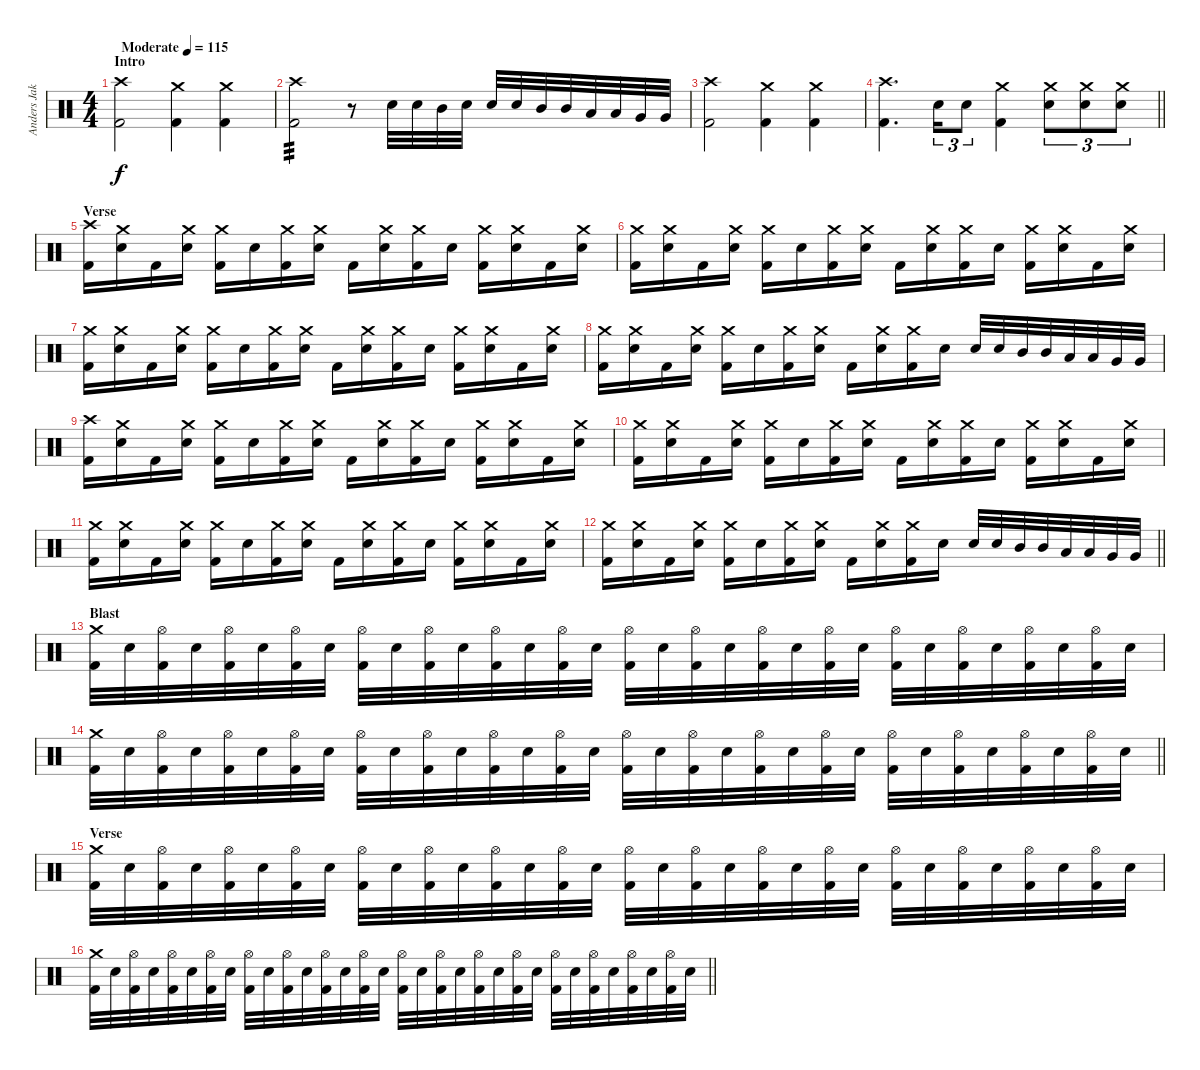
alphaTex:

\track ("Anders Jakobson" "Anders Jak") {instrument percussion}
\staff {score}
\articulation defaults
\ts (4 4)
\section ("" "Intro")
\tempo (115 "Moderate")
\clef neutral
\ks c
("Crash high (hit)" "Kick (hit) 2").2{dy f} ("Crash medium (hit)" "Kick (hit) 2").4 ("Crash medium (hit)" "Kick (hit) 2").4 |
("Crash high (hit)" "Kick (hit) 2").2{tp 3} r.8 "Electric Snare (hit)".32 "Electric Snare (hit)".32 "Mid Tom (hit)".32 "Electric Snare (hit)".32 "Electric Snare (hit)".32 "Electric Snare (hit)".32 "Mid Tom (hit)".32 "Mid Tom (hit)".32 "Low Tom (hit)".32 "Low Tom (hit)".32 "Very Low Tom (hit)".32 "Very Low Tom (hit)".32 |
("Crash high (hit)" "Kick (hit) 2").2 ("Crash medium (hit)" "Kick (hit) 2").4 ("Crash medium (hit)" "Kick (hit) 2").4 |
\barLineRight lightlight
("Crash high (hit)" "Kick (hit) 2").4{d} "Electric Snare (hit)".16{tu (3 2)} "Electric Snare (hit)".8{tu (3 2)} ("Crash medium (hit)" "Kick (hit) 2").4 ("Crash medium (hit)" "Electric Snare (hit)").8{tu (3 2)} ("Crash medium (hit)" "Electric Snare (hit)").8{tu (3 2)} ("Crash medium (hit)" "Electric Snare (hit)").8{tu (3 2)} |
\section ("" "Verse")
("Crash high (hit)" "Kick (hit) 2").16 ("Crash medium (hit)" "Electric Snare (hit)").16 "Kick (hit) 2".16 ("Crash medium (hit)" "Electric Snare (hit)").16 ("Crash medium (hit)" "Kick (hit) 2").16 "Electric Snare (hit)".16 ("Crash medium (hit)" "Kick (hit) 2").16 ("Crash medium (hit)" "Electric Snare (hit)").16 "Kick (hit) 2".16 ("Crash medium (hit)" "Electric Snare (hit)").16 ("Crash medium (hit)" "Kick (hit) 2").16 "Electric Snare (hit)".16 ("Crash medium (hit)" "Kick (hit) 2").16 ("Crash medium (hit)" "Electric Snare (hit)").16 "Kick (hit) 2".16 ("Crash medium (hit)" "Electric Snare (hit)").16 |
("Crash medium (hit)" "Kick (hit) 2").16 ("Crash medium (hit)" "Electric Snare (hit)").16 "Kick (hit) 2".16 ("Crash medium (hit)" "Electric Snare (hit)").16 ("Crash medium (hit)" "Kick (hit) 2").16 "Electric Snare (hit)".16 ("Crash medium (hit)" "Kick (hit) 2").16 ("Crash medium (hit)" "Electric Snare (hit)").16 "Kick (hit) 2".16 ("Crash medium (hit)" "Electric Snare (hit)").16 ("Crash medium (hit)" "Kick (hit) 2").16 "Electric Snare (hit)".16 ("Crash medium (hit)" "Kick (hit) 2").16 ("Crash medium (hit)" "Electric Snare (hit)").16 "Kick (hit) 2".16 ("Crash medium (hit)" "Electric Snare (hit)").16 |
("Crash medium (hit)" "Kick (hit) 2").16 ("Crash medium (hit)" "Electric Snare (hit)").16 "Kick (hit) 2".16 ("Crash medium (hit)" "Electric Snare (hit)").16 ("Crash medium (hit)" "Kick (hit) 2").16 "Electric Snare (hit)".16 ("Crash medium (hit)" "Kick (hit) 2").16 ("Crash medium (hit)" "Electric Snare (hit)").16 "Kick (hit) 2".16 ("Crash medium (hit)" "Electric Snare (hit)").16 ("Crash medium (hit)" "Kick (hit) 2").16 "Electric Snare (hit)".16 ("Crash medium (hit)" "Kick (hit) 2").16 ("Crash medium (hit)" "Electric Snare (hit)").16 "Kick (hit) 2".16 ("Crash medium (hit)" "Electric Snare (hit)").16 |
("Crash medium (hit)" "Kick (hit) 2").16 ("Crash medium (hit)" "Electric Snare (hit)").16 "Kick (hit) 2".16 ("Crash medium (hit)" "Electric Snare (hit)").16 ("Crash medium (hit)" "Kick (hit) 2").16 "Electric Snare (hit)".16 ("Crash medium (hit)" "Kick (hit) 2").16 ("Crash medium (hit)" "Electric Snare (hit)").16 "Kick (hit) 2".16 ("Crash medium (hit)" "Electric Snare (hit)").16 ("Crash medium (hit)" "Kick (hit) 2").16 "Electric Snare (hit)".16 "Electric Snare (hit)".32 "Electric Snare (hit)".32 "Mid Tom (hit)".32 "Mid Tom (hit)".32 "Low Tom (hit)".32 "Low Tom (hit)".32 "Very Low Tom (hit)".32 "Very Low Tom (hit)".32 |
("Crash high (hit)" "Kick (hit) 2").16 ("Crash medium (hit)" "Electric Snare (hit)").16 "Kick (hit) 2".16 ("Crash medium (hit)" "Electric Snare (hit)").16 ("Crash medium (hit)" "Kick (hit) 2").16 "Electric Snare (hit)".16 ("Crash medium (hit)" "Kick (hit) 2").16 ("Crash medium (hit)" "Electric Snare (hit)").16 "Kick (hit) 2".16 ("Crash medium (hit)" "Electric Snare (hit)").16 ("Crash medium (hit)" "Kick (hit) 2").16 "Electric Snare (hit)".16 ("Crash medium (hit)" "Kick (hit) 2").16 ("Crash medium (hit)" "Electric Snare (hit)").16 "Kick (hit) 2".16 ("Crash medium (hit)" "Electric Snare (hit)").16 |
("Crash medium (hit)" "Kick (hit) 2").16 ("Crash medium (hit)" "Electric Snare (hit)").16 "Kick (hit) 2".16 ("Crash medium (hit)" "Electric Snare (hit)").16 ("Crash medium (hit)" "Kick (hit) 2").16 "Electric Snare (hit)".16 ("Crash medium (hit)" "Kick (hit) 2").16 ("Crash medium (hit)" "Electric Snare (hit)").16 "Kick (hit) 2".16 ("Crash medium (hit)" "Electric Snare (hit)").16 ("Crash medium (hit)" "Kick (hit) 2").16 "Electric Snare (hit)".16 ("Crash medium (hit)" "Kick (hit) 2").16 ("Crash medium (hit)" "Electric Snare (hit)").16 "Kick (hit) 2".16 ("Crash medium (hit)" "Electric Snare (hit)").16 |
("Crash medium (hit)" "Kick (hit) 2").16 ("Crash medium (hit)" "Electric Snare (hit)").16 "Kick (hit) 2".16 ("Crash medium (hit)" "Electric Snare (hit)").16 ("Crash medium (hit)" "Kick (hit) 2").16 "Electric Snare (hit)".16 ("Crash medium (hit)" "Kick (hit) 2").16 ("Crash medium (hit)" "Electric Snare (hit)").16 "Kick (hit) 2".16 ("Crash medium (hit)" "Electric Snare (hit)").16 ("Crash medium (hit)" "Kick (hit) 2").16 "Electric Snare (hit)".16 ("Crash medium (hit)" "Kick (hit) 2").16 ("Crash medium (hit)" "Electric Snare (hit)").16 "Kick (hit) 2".16 ("Crash medium (hit)" "Electric Snare (hit)").16 |
\barLineRight lightlight
("Crash medium (hit)" "Kick (hit) 2").16 ("Crash medium (hit)" "Electric Snare (hit)").16 "Kick (hit) 2".16 ("Crash medium (hit)" "Electric Snare (hit)").16 ("Crash medium (hit)" "Kick (hit) 2").16 "Electric Snare (hit)".16 ("Crash medium (hit)" "Kick (hit) 2").16 ("Crash medium (hit)" "Electric Snare (hit)").16 "Kick (hit) 2".16 ("Crash medium (hit)" "Electric Snare (hit)").16 ("Crash medium (hit)" "Kick (hit) 2").16 "Electric Snare (hit)".16 "Electric Snare (hit)".32 "Electric Snare (hit)".32 "Mid Tom (hit)".32 "Mid Tom (hit)".32 "Low Tom (hit)".32 "Low Tom (hit)".32 "Very Low Tom (hit)".32 "Very Low Tom (hit)".32 |
\section ("" "Blast")
("Crash medium (hit)" "Kick (hit) 2").32 "Electric Snare (hit)".32 ("Hi-Hat (open)" "Kick (hit) 2").32 "Electric Snare (hit)".32 ("Hi-Hat (open)" "Kick (hit) 2").32 "Electric Snare (hit)".32 ("Hi-Hat (open)" "Kick (hit) 2").32 "Electric Snare (hit)".32 ("Hi-Hat (open)" "Kick (hit) 2").32 "Electric Snare (hit)".32 ("Hi-Hat (open)" "Kick (hit) 2").32 "Electric Snare (hit)".32 ("Hi-Hat (open)" "Kick (hit) 2").32 "Electric Snare (hit)".32 ("Hi-Hat (open)" "Kick (hit) 2").32 "Electric Snare (hit)".32 ("Hi-Hat (open)" "Kick (hit) 2").32 "Electric Snare (hit)".32 ("Hi-Hat (open)" "Kick (hit) 2").32 "Electric Snare (hit)".32 ("Hi-Hat (open)" "Kick (hit) 2").32 "Electric Snare (hit)".32 ("Hi-Hat (open)" "Kick (hit) 2").32 "Electric Snare (hit)".32 ("Hi-Hat (open)" "Kick (hit) 2").32 "Electric Snare (hit)".32 ("Hi-Hat (open)" "Kick (hit) 2").32 "Electric Snare (hit)".32 ("Hi-Hat (open)" "Kick (hit) 2").32 "Electric Snare (hit)".32 ("Hi-Hat (open)" "Kick (hit) 2").32 "Electric Snare (hit)".32 |
\barLineRight lightlight
("Crash medium (hit)" "Kick (hit) 2").32 "Electric Snare (hit)".32 ("Hi-Hat (open)" "Kick (hit) 2").32 "Electric Snare (hit)".32 ("Hi-Hat (open)" "Kick (hit) 2").32 "Electric Snare (hit)".32 ("Hi-Hat (open)" "Kick (hit) 2").32 "Electric Snare (hit)".32 ("Hi-Hat (open)" "Kick (hit) 2").32 "Electric Snare (hit)".32 ("Hi-Hat (open)" "Kick (hit) 2").32 "Electric Snare (hit)".32 ("Hi-Hat (open)" "Kick (hit) 2").32 "Electric Snare (hit)".32 ("Hi-Hat (open)" "Kick (hit) 2").32 "Electric Snare (hit)".32 ("Hi-Hat (open)" "Kick (hit) 2").32 "Electric Snare (hit)".32 ("Hi-Hat (open)" "Kick (hit) 2").32 "Electric Snare (hit)".32 ("Hi-Hat (open)" "Kick (hit) 2").32 "Electric Snare (hit)".32 ("Hi-Hat (open)" "Kick (hit) 2").32 "Electric Snare (hit)".32 ("Hi-Hat (open)" "Kick (hit) 2").32 "Electric Snare (hit)".32 ("Hi-Hat (open)" "Kick (hit) 2").32 "Electric Snare (hit)".32 ("Hi-Hat (open)" "Kick (hit) 2").32 "Electric Snare (hit)".32 ("Hi-Hat (open)" "Kick (hit) 2").32 "Electric Snare (hit)".32 |
\section ("" "Verse")
("Crash medium (hit)" "Kick (hit) 2").32 "Electric Snare (hit)".32 ("Hi-Hat (open)" "Kick (hit) 2").32 "Electric Snare (hit)".32 ("Hi-Hat (open)" "Kick (hit) 2").32 "Electric Snare (hit)".32 ("Hi-Hat (open)" "Kick (hit) 2").32 "Electric Snare (hit)".32 ("Hi-Hat (open)" "Kick (hit) 2").32 "Electric Snare (hit)".32 ("Hi-Hat (open)" "Kick (hit) 2").32 "Electric Snare (hit)".32 ("Hi-Hat (open)" "Kick (hit) 2").32 "Electric Snare (hit)".32 ("Hi-Hat (open)" "Kick (hit) 2").32 "Electric Snare (hit)".32 ("Hi-Hat (open)" "Kick (hit) 2").32 "Electric Snare (hit)".32 ("Hi-Hat (open)" "Kick (hit) 2").32 "Electric Snare (hit)".32 ("Hi-Hat (open)" "Kick (hit) 2").32 "Electric Snare (hit)".32 ("Hi-Hat (open)" "Kick (hit) 2").32 "Electric Snare (hit)".32 ("Hi-Hat (open)" "Kick (hit) 2").32 "Electric Snare (hit)".32 ("Hi-Hat (open)" "Kick (hit) 2").32 "Electric Snare (hit)".32 ("Hi-Hat (open)" "Kick (hit) 2").32 "Electric Snare (hit)".32 ("Hi-Hat (open)" "Kick (hit) 2").32 "Electric Snare (hit)".32 |
\barLineRight lightlight
("Crash medium (hit)" "Kick (hit) 2").32 "Electric Snare (hit)".32 ("Hi-Hat (open)" "Kick (hit) 2").32 "Electric Snare (hit)".32 ("Hi-Hat (open)" "Kick (hit) 2").32 "Electric Snare (hit)".32 ("Hi-Hat (open)" "Kick (hit) 2").32 "Electric Snare (hit)".32 ("Hi-Hat (open)" "Kick (hit) 2").32 "Electric Snare (hit)".32 ("Hi-Hat (open)" "Kick (hit) 2").32 "Electric Snare (hit)".32 ("Hi-Hat (open)" "Kick (hit) 2").32 "Electric Snare (hit)".32 ("Hi-Hat (open)" "Kick (hit) 2").32 "Electric Snare (hit)".32 ("Hi-Hat (open)" "Kick (hit) 2").32 "Electric Snare (hit)".32 ("Hi-Hat (open)" "Kick (hit) 2").32 "Electric Snare (hit)".32 ("Hi-Hat (open)" "Kick (hit) 2").32 "Electric Snare (hit)".32 ("Hi-Hat (open)" "Kick (hit) 2").32 "Electric Snare (hit)".32 ("Hi-Hat (open)" "Kick (hit) 2").32 "Electric Snare (hit)".32 ("Hi-Hat (open)" "Kick (hit) 2").32 "Electric Snare (hit)".32 ("Hi-Hat (open)" "Kick (hit) 2").32 "Electric Snare (hit)".32 ("Hi-Hat (open)" "Kick (hit) 2").32 "Electric Snare (hit)".32
